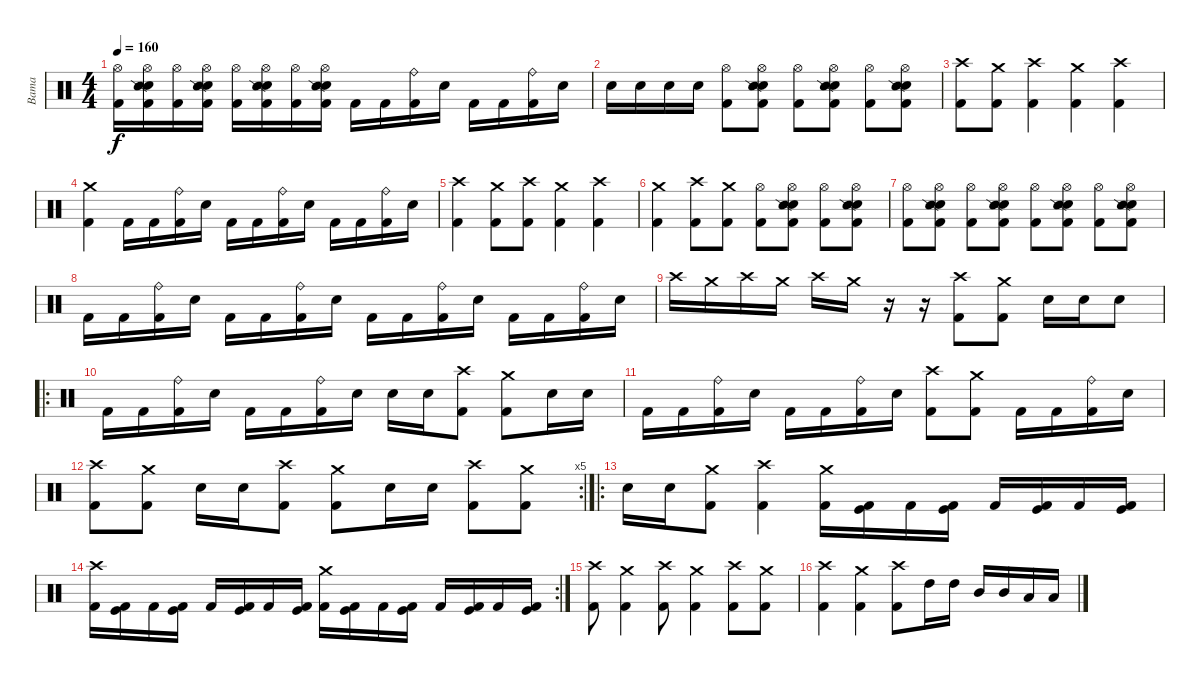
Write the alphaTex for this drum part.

\track ("Bama" "Bama") {instrument percussion}
\staff {score}
\articulation defaults
\ts (4 4)
\tempo 160
\clef neutral
\ks c
("Hi-Hat (open)" "Kick (hit) 2").16{dy f} ("Hi-Hat (open)" "Electric Snare (hit)" "Snare (side stick) 2" "Kick (hit) 2").16 ("Hi-Hat (open)" "Kick (hit) 2").16 ("Hi-Hat (open)" "Electric Snare (hit)" "Snare (side stick) 2" "Kick (hit) 2").16 ("Hi-Hat (open)" "Kick (hit) 2").16 ("Hi-Hat (open)" "Electric Snare (hit)" "Snare (side stick) 2" "Kick (hit) 2").16 ("Hi-Hat (open)" "Kick (hit) 2").16 ("Hi-Hat (open)" "Electric Snare (hit)" "Snare (side stick) 2" "Kick (hit) 2").16 "Kick (hit) 2".16 "Kick (hit) 2".16 ("Ride (bell)" "Kick (hit) 2").16 "Electric Snare (hit)".16 "Kick (hit) 2".16 "Kick (hit) 2".16 ("Ride (bell)" "Kick (hit) 2").16 "Electric Snare (hit)".16 |
"Electric Snare (hit)".16 "Electric Snare (hit)".16 "Electric Snare (hit)".16 "Electric Snare (hit)".16 ("Hi-Hat (open)" "Kick (hit) 2").8 ("Hi-Hat (open)" "Electric Snare (hit)" "Snare (side stick) 2" "Kick (hit) 2").8 ("Hi-Hat (open)" "Kick (hit) 2").8 ("Hi-Hat (open)" "Electric Snare (hit)" "Snare (side stick) 2" "Kick (hit) 2").8 ("Hi-Hat (open)" "Kick (hit) 2").8 ("Hi-Hat (open)" "Electric Snare (hit)" "Snare (side stick) 2" "Kick (hit) 2").8 |
("Crash high (hit)" "Kick (hit) 2").8 ("Crash medium (hit)" "Kick (hit) 2").8 ("Crash high (hit)" "Kick (hit) 2").4 ("Crash medium (hit)" "Kick (hit) 2").4 ("Crash high (hit)" "Kick (hit) 2").4 |
("Crash medium (hit)" "Kick (hit) 2").4 "Kick (hit) 2".16 "Kick (hit) 2".16 ("Ride (bell)" "Kick (hit) 2").16 "Electric Snare (hit)".16 "Kick (hit) 2".16 "Kick (hit) 2".16 ("Ride (bell)" "Kick (hit) 2").16 "Electric Snare (hit)".16 "Kick (hit) 2".16 "Kick (hit) 2".16 ("Ride (bell)" "Kick (hit) 2").16 "Electric Snare (hit)".16 |
("Crash high (hit)" "Kick (hit) 2").4 ("Crash medium (hit)" "Kick (hit) 2").8 ("Crash high (hit)" "Kick (hit) 2").8 ("Crash medium (hit)" "Kick (hit) 2").4 ("Crash high (hit)" "Kick (hit) 2").4 |
("Crash medium (hit)" "Kick (hit) 2").4 ("Crash high (hit)" "Kick (hit) 2").8 ("Crash medium (hit)" "Kick (hit) 2").8 ("Hi-Hat (open)" "Kick (hit) 2").8 ("Hi-Hat (open)" "Electric Snare (hit)" "Snare (side stick) 2" "Kick (hit) 2").8 ("Hi-Hat (open)" "Kick (hit) 2").8 ("Hi-Hat (open)" "Electric Snare (hit)" "Snare (side stick) 2" "Kick (hit) 2").8 |
("Hi-Hat (open)" "Kick (hit) 2").8 ("Hi-Hat (open)" "Electric Snare (hit)" "Snare (side stick) 2" "Kick (hit) 2").8 ("Hi-Hat (open)" "Kick (hit) 2").8 ("Hi-Hat (open)" "Electric Snare (hit)" "Snare (side stick) 2" "Kick (hit) 2").8 ("Hi-Hat (open)" "Kick (hit) 2").8 ("Hi-Hat (open)" "Electric Snare (hit)" "Snare (side stick) 2" "Kick (hit) 2").8 ("Hi-Hat (open)" "Kick (hit) 2").8 ("Hi-Hat (open)" "Electric Snare (hit)" "Snare (side stick) 2" "Kick (hit) 2").8 |
"Kick (hit) 2".16 "Kick (hit) 2".16 ("Ride (bell)" "Kick (hit) 2").16 "Electric Snare (hit)".16 "Kick (hit) 2".16 "Kick (hit) 2".16 ("Ride (bell)" "Kick (hit) 2").16 "Electric Snare (hit)".16 "Kick (hit) 2".16 "Kick (hit) 2".16 ("Ride (bell)" "Kick (hit) 2").16 "Electric Snare (hit)".16 "Kick (hit) 2".16 "Kick (hit) 2".16 ("Ride (bell)" "Kick (hit) 2").16 "Electric Snare (hit)".16 |
"Crash high (hit)".16 "Crash medium (hit)".16 "Crash high (hit)".16 "Crash medium (hit)".16 "Crash high (hit)".16 "Crash medium (hit)".16 r.16 r.16 ("Crash high (hit)" "Kick (hit) 2").8 ("Crash medium (hit)" "Kick (hit) 2").8 "Electric Snare (hit)".16 "Electric Snare (hit)".16 "Electric Snare (hit)".8 |
\ro "Kick (hit) 2".16 "Kick (hit) 2".16
("Ride (bell)" "Kick (hit) 2").16 "Electric Snare (hit)".16 "Kick (hit) 2".16 "Kick (hit) 2".16 ("Ride (bell)" "Kick (hit) 2").16 "Electric Snare (hit)".16 "Electric Snare (hit)".16 "Electric Snare (hit)".16 ("Crash high (hit)" "Kick (hit) 2").8 ("Crash medium (hit)" "Kick (hit) 2").8 "Electric Snare (hit)".16 "Electric Snare (hit)".16 |
"Kick (hit) 2".16 "Kick (hit) 2".16 ("Ride (bell)" "Kick (hit) 2").16 "Electric Snare (hit)".16 "Kick (hit) 2".16 "Kick (hit) 2".16 ("Ride (bell)" "Kick (hit) 2").16 "Electric Snare (hit)".16 ("Crash high (hit)" "Kick (hit) 2").8 ("Crash medium (hit)" "Kick (hit) 2").8 "Kick (hit) 2".16 "Kick (hit) 2".16 ("Ride (bell)" "Kick (hit) 2").16 "Electric Snare (hit)".16 |
\rc 5
("Crash high (hit)" "Kick (hit) 2").8 ("Crash medium (hit)" "Kick (hit) 2").8 "Electric Snare (hit)".16 "Electric Snare (hit)".16 ("Crash high (hit)" "Kick (hit) 2").8 ("Crash medium (hit)" "Kick (hit) 2").8 "Electric Snare (hit)".16 "Electric Snare (hit)".16 ("Crash high (hit)" "Kick (hit) 2").8 ("Crash medium (hit)" "Kick (hit) 2").8 |
\ro "Electric Snare (hit)".16 "Electric Snare (hit)".16
("Crash medium (hit)" "Kick (hit) 2").8 ("Crash high (hit)" "Kick (hit) 2").4 ("Crash medium (hit)" "Kick (hit) 2").16 ("Kick (hit)" "Kick (hit) 2").16 "Kick (hit) 2".16 ("Kick (hit)" "Kick (hit) 2").16 "Kick (hit) 2".16 ("Kick (hit)" "Kick (hit) 2").16 "Kick (hit) 2".16 ("Kick (hit)" "Kick (hit) 2").16 |
\rc 2
("Crash high (hit)" "Kick (hit) 2").16 ("Kick (hit)" "Kick (hit) 2").16 "Kick (hit) 2".16 ("Kick (hit)" "Kick (hit) 2").16 "Kick (hit) 2".16 ("Kick (hit)" "Kick (hit) 2").16 "Kick (hit) 2".16 ("Kick (hit)" "Kick (hit) 2").16 ("Crash medium (hit)" "Kick (hit) 2").16 ("Kick (hit)" "Kick (hit) 2").16 "Kick (hit) 2".16 ("Kick (hit)" "Kick (hit) 2").16 "Kick (hit) 2".16 ("Kick (hit)" "Kick (hit) 2").16 "Kick (hit) 2".16 ("Kick (hit)" "Kick (hit) 2").16 |
("Crash high (hit)" "Kick (hit) 2").8 ("Crash medium (hit)" "Kick (hit) 2").4 ("Crash high (hit)" "Kick (hit) 2").8 ("Crash medium (hit)" "Kick (hit) 2").4 ("Crash high (hit)" "Kick (hit) 2").8 ("Crash medium (hit)" "Kick (hit) 2").8 |
("Crash high (hit)" "Kick (hit) 2").4 ("Crash medium (hit)" "Kick (hit) 2").4 ("Crash high (hit)" "Kick (hit) 2").8 "High Tom (hit)".16 "High Tom (hit)".16 "Mid Tom (hit)".16 "Mid Tom (hit)".16 "Low Tom (hit)".16 "Low Tom (hit)".16
